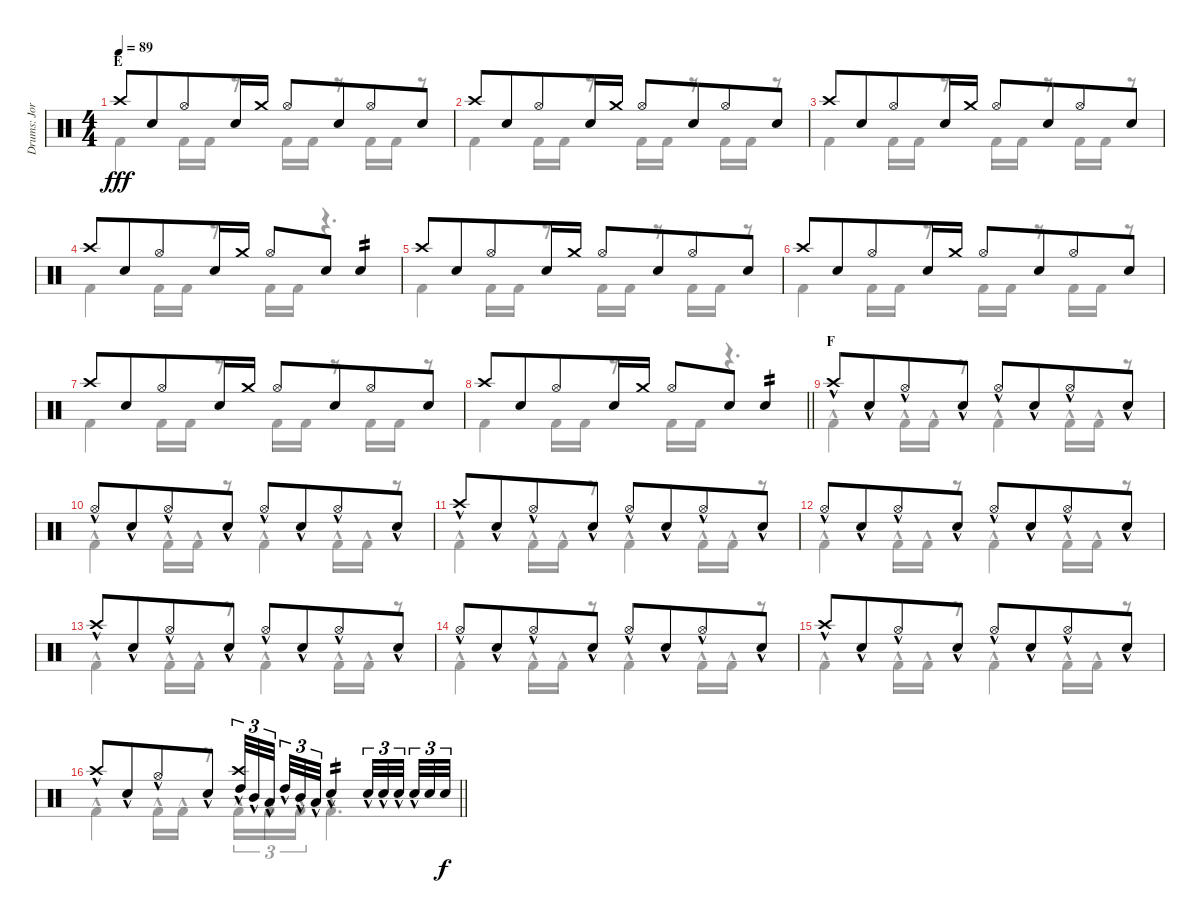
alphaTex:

\track ("Drums: Jorg" "Drums: Jor") {instrument percussion}
\staff {score}
\articulation defaults
\voice
\ts (4 4)
\section ("" "E")
\tempo 89
\clef neutral
\ks c "Crash high (hit)".8{dy fff} "Snare (hit) 2".8{beam merge} "Hi-Hat (open)".8 "Snare (hit) 2".16{beam merge} "Crash medium (hit)".16 "Hi-Hat (open)".8{beam merge} "Snare (hit) 2".8{beam merge} "Hi-Hat (open)".8 "Snare (hit) 2".8
|
"Crash high (hit)".8 "Snare (hit) 2".8{beam merge} "Hi-Hat (open)".8 "Snare (hit) 2".16{beam merge} "Crash medium (hit)".16 "Hi-Hat (open)".8{beam merge} "Snare (hit) 2".8{beam merge} "Hi-Hat (open)".8 "Snare (hit) 2".8 |
"Crash high (hit)".8 "Snare (hit) 2".8{beam merge} "Hi-Hat (open)".8 "Snare (hit) 2".16{beam merge} "Crash medium (hit)".16 "Hi-Hat (open)".8{beam merge} "Snare (hit) 2".8{beam merge} "Hi-Hat (open)".8 "Snare (hit) 2".8 |
"Crash high (hit)".8 "Snare (hit) 2".8{beam merge} "Hi-Hat (open)".8 "Snare (hit) 2".16{beam merge} "Crash medium (hit)".16 "Hi-Hat (open)".8{beam merge} "Snare (hit) 2".8 "Snare (hit) 2".4{tp 2} |
"Crash high (hit)".8 "Snare (hit) 2".8{beam merge} "Hi-Hat (open)".8 "Snare (hit) 2".16{beam merge} "Crash medium (hit)".16 "Hi-Hat (open)".8{beam merge} "Snare (hit) 2".8{beam merge} "Hi-Hat (open)".8 "Snare (hit) 2".8 |
"Crash high (hit)".8 "Snare (hit) 2".8{beam merge} "Hi-Hat (open)".8 "Snare (hit) 2".16{beam merge} "Crash medium (hit)".16 "Hi-Hat (open)".8{beam merge} "Snare (hit) 2".8{beam merge} "Hi-Hat (open)".8 "Snare (hit) 2".8 |
"Crash high (hit)".8 "Snare (hit) 2".8{beam merge} "Hi-Hat (open)".8 "Snare (hit) 2".16{beam merge} "Crash medium (hit)".16 "Hi-Hat (open)".8{beam merge} "Snare (hit) 2".8{beam merge} "Hi-Hat (open)".8 "Snare (hit) 2".8 |
\barLineRight lightlight "Crash high (hit)".8 "Snare (hit) 2".8{beam merge} "Hi-Hat (open)".8 "Snare (hit) 2".16{beam merge} "Crash medium (hit)".16 "Hi-Hat (open)".8{beam merge} "Snare (hit) 2".8 "Snare (hit) 2".4{tp 2}
|
\section ("" "F")
"Crash high (hit)"{hac}.8 "Snare (hit) 2"{hac}.8{beam merge} "Hi-Hat (open)"{hac}.8 "Snare (hit) 2"{hac}.8 "Hi-Hat (open)"{hac}.8 "Snare (hit) 2"{hac}.8{beam merge} "Hi-Hat (open)"{hac}.8 "Snare (hit) 2"{hac}.8 |
"Hi-Hat (open)"{hac}.8 "Snare (hit) 2"{hac}.8{beam merge} "Hi-Hat (open)"{hac}.8 "Snare (hit) 2"{hac}.8 "Hi-Hat (open)"{hac}.8 "Snare (hit) 2"{hac}.8{beam merge} "Hi-Hat (open)"{hac}.8 "Snare (hit) 2"{hac}.8 |
"Crash high (hit)"{hac}.8 "Snare (hit) 2"{hac}.8{beam merge} "Hi-Hat (open)"{hac}.8 "Snare (hit) 2"{hac}.8 "Hi-Hat (open)"{hac}.8 "Snare (hit) 2"{hac}.8{beam merge} "Hi-Hat (open)"{hac}.8 "Snare (hit) 2"{hac}.8 |
"Hi-Hat (open)"{hac}.8 "Snare (hit) 2"{hac}.8{beam merge} "Hi-Hat (open)"{hac}.8 "Snare (hit) 2"{hac}.8 "Hi-Hat (open)"{hac}.8 "Snare (hit) 2"{hac}.8{beam merge} "Hi-Hat (open)"{hac}.8 "Snare (hit) 2"{hac}.8 |
"Crash high (hit)"{hac}.8 "Snare (hit) 2"{hac}.8{beam merge} "Hi-Hat (open)"{hac}.8 "Snare (hit) 2"{hac}.8 "Hi-Hat (open)"{hac}.8 "Snare (hit) 2"{hac}.8{beam merge} "Hi-Hat (open)"{hac}.8 "Snare (hit) 2"{hac}.8 |
"Hi-Hat (open)"{hac}.8 "Snare (hit) 2"{hac}.8{beam merge} "Hi-Hat (open)"{hac}.8 "Snare (hit) 2"{hac}.8 "Hi-Hat (open)"{hac}.8 "Snare (hit) 2"{hac}.8{beam merge} "Hi-Hat (open)"{hac}.8 "Snare (hit) 2"{hac}.8 |
"Crash high (hit)"{hac}.8 "Snare (hit) 2"{hac}.8{beam merge} "Hi-Hat (open)"{hac}.8 "Snare (hit) 2"{hac}.8 "Hi-Hat (open)"{hac}.8 "Snare (hit) 2"{hac}.8{beam merge} "Hi-Hat (open)"{hac}.8 "Snare (hit) 2"{hac}.8 |
\barLineRight lightlight "Crash high (hit)"{hac}.8 "Snare (hit) 2"{hac}.8{beam merge} "Hi-Hat (open)"{hac}.8 "Snare (hit) 2"{hac}.8
("Crash high (hit)" "High Tom (hit)"{hac}).32{tu (3 2)} "Mid Tom (hit)"{hac}.32{tu (3 2)} "Low Tom (hit)"{hac}.32{tu (3 2) beam splitsecondary} "High Tom (hit)"{hac}.32{tu (3 2)} "Mid Tom (hit)"{hac}.32{tu (3 2)} "Low Tom (hit)"{hac}.32{tu (3 2)} "Snare (hit) 2"{hac}.4{tp 2} "Electric Snare (hit)"{hac}.32{tu (3 2)} "Electric Snare (hit)"{hac}.32{tu (3 2)} "Electric Snare (hit)"{hac}.32{tu (3 2) beam splitsecondary} "Electric Snare (hit)"{hac}.32{tu (3 2)} "Electric Snare (hit)".32{tu (3 2)} "Electric Snare (hit)".32{tu (3 2) dy f}
\voice
\clef neutral
\ottava regular
\simile none
\ks c "Kick (hit) 2".4{dy fff} "Kick (hit) 2".16 "Kick (hit) 2".16
r.8 "Kick (hit) 2".16 "Kick (hit) 2".16 r.8 "Kick (hit) 2".16 "Kick (hit) 2".16 r.8 |
"Kick (hit) 2".4 "Kick (hit) 2".16 "Kick (hit) 2".16 r.8 "Kick (hit) 2".16 "Kick (hit) 2".16 r.8 "Kick (hit) 2".16 "Kick (hit) 2".16 r.8 |
"Kick (hit) 2".4 "Kick (hit) 2".16 "Kick (hit) 2".16 r.8 "Kick (hit) 2".16 "Kick (hit) 2".16 r.8 "Kick (hit) 2".16 "Kick (hit) 2".16 r.8 |
"Kick (hit) 2".4 "Kick (hit) 2".16 "Kick (hit) 2".16 r.8 "Kick (hit) 2".16 "Kick (hit) 2".16 r.4{d} |
"Kick (hit) 2".4 "Kick (hit) 2".16 "Kick (hit) 2".16 r.8 "Kick (hit) 2".16 "Kick (hit) 2".16 r.8 "Kick (hit) 2".16 "Kick (hit) 2".16 r.8 |
"Kick (hit) 2".4 "Kick (hit) 2".16 "Kick (hit) 2".16 r.8 "Kick (hit) 2".16 "Kick (hit) 2".16 r.8 "Kick (hit) 2".16 "Kick (hit) 2".16 r.8 |
"Kick (hit) 2".4 "Kick (hit) 2".16 "Kick (hit) 2".16 r.8 "Kick (hit) 2".16 "Kick (hit) 2".16 r.8 "Kick (hit) 2".16 "Kick (hit) 2".16 r.8 |
\barLineRight lightlight "Kick (hit) 2".4 "Kick (hit) 2".16 "Kick (hit) 2".16
r.8 "Kick (hit) 2".16 "Kick (hit) 2".16 r.4{d} |
"Kick (hit) 2"{hac}.4 "Kick (hit) 2"{hac}.16 "Kick (hit) 2"{hac}.16 r.8 "Kick (hit) 2"{hac}.4 "Kick (hit) 2"{hac}.16 "Kick (hit) 2"{hac}.16 r.8 |
"Kick (hit) 2"{hac}.4 "Kick (hit) 2"{hac}.16 "Kick (hit) 2"{hac}.16 r.8 "Kick (hit) 2"{hac}.4 "Kick (hit) 2"{hac}.16 "Kick (hit) 2"{hac}.16 r.8 |
"Kick (hit) 2"{hac}.4 "Kick (hit) 2"{hac}.16 "Kick (hit) 2"{hac}.16 r.8 "Kick (hit) 2"{hac}.4 "Kick (hit) 2"{hac}.16 "Kick (hit) 2"{hac}.16 r.8 |
"Kick (hit) 2"{hac}.4 "Kick (hit) 2"{hac}.16 "Kick (hit) 2"{hac}.16 r.8 "Kick (hit) 2"{hac}.4 "Kick (hit) 2"{hac}.16 "Kick (hit) 2"{hac}.16 r.8 |
"Kick (hit) 2"{hac}.4 "Kick (hit) 2"{hac}.16 "Kick (hit) 2"{hac}.16 r.8 "Kick (hit) 2"{hac}.4 "Kick (hit) 2"{hac}.16 "Kick (hit) 2"{hac}.16 r.8 |
"Kick (hit) 2"{hac}.4 "Kick (hit) 2"{hac}.16 "Kick (hit) 2"{hac}.16 r.8 "Kick (hit) 2"{hac}.4 "Kick (hit) 2"{hac}.16 "Kick (hit) 2"{hac}.16 r.8 |
"Kick (hit) 2"{hac}.4 "Kick (hit) 2"{hac}.16 "Kick (hit) 2"{hac}.16 r.8 "Kick (hit) 2"{hac}.4 "Kick (hit) 2"{hac}.16 "Kick (hit) 2"{hac}.16 r.8 |
\barLineRight lightlight "Kick (hit) 2"{hac}.4 "Kick (hit) 2"{hac}.16 "Kick (hit) 2"{hac}.16
r.8 "Kick (hit) 2"{hac}.16{tu (3 2)} "Kick (hit) 2"{hac}.16{tu (3 2)} "Kick (hit) 2"{hac}.16{tu (3 2)} "Kick (hit) 2"{hac}.4{d}
